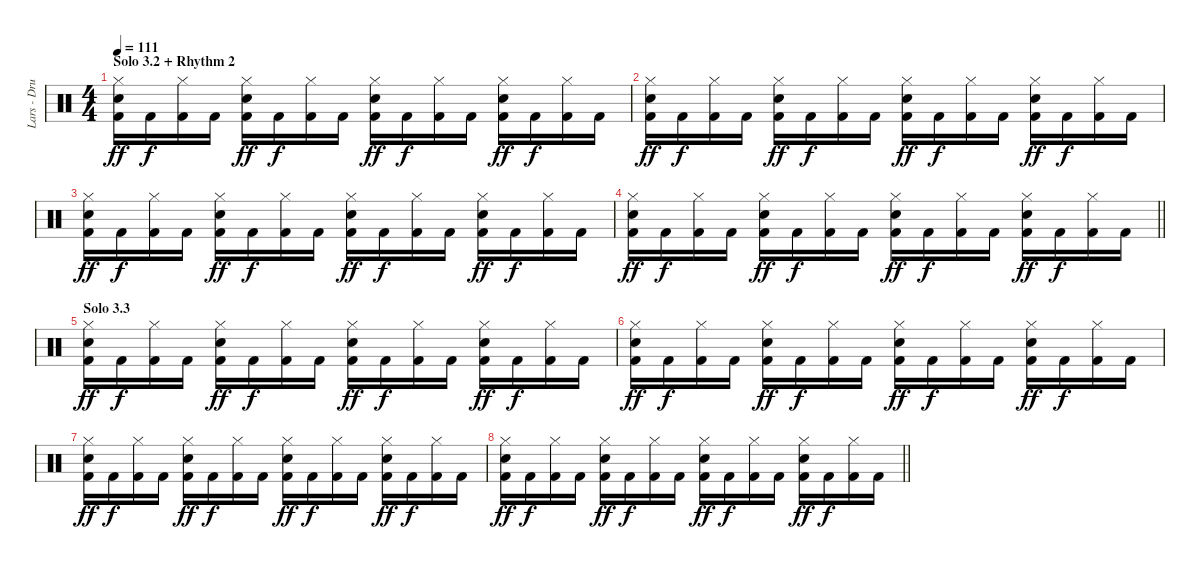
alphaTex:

\track ("Lars - Drums + tempi marker" "Lars - Dru") {instrument percussion}
\staff {score}
\articulation defaults
\ts (4 4)
\section ("" "Solo 3.2 + Rhythm 2")
\tempo 111
\clef neutral
\ks c
("Electric Snare (hit)" "Hi-Hat (closed)" "Kick (hit) 2").16{dy ff} "Kick (hit) 2".16{dy f} ("Hi-Hat (closed)" "Kick (hit) 2").16 "Kick (hit) 2".16 ("Electric Snare (hit)" "Hi-Hat (closed)" "Kick (hit) 2").16{dy ff} "Kick (hit) 2".16{dy f} ("Hi-Hat (closed)" "Kick (hit) 2").16 "Kick (hit) 2".16 ("Electric Snare (hit)" "Hi-Hat (closed)" "Kick (hit) 2").16{dy ff} "Kick (hit) 2".16{dy f} ("Hi-Hat (closed)" "Kick (hit) 2").16 "Kick (hit) 2".16 ("Electric Snare (hit)" "Hi-Hat (closed)" "Kick (hit) 2").16{dy ff} "Kick (hit) 2".16{dy f} ("Hi-Hat (closed)" "Kick (hit) 2").16 "Kick (hit) 2".16 |
("Electric Snare (hit)" "Hi-Hat (closed)" "Kick (hit) 2").16{dy ff} "Kick (hit) 2".16{dy f} ("Hi-Hat (closed)" "Kick (hit) 2").16 "Kick (hit) 2".16 ("Electric Snare (hit)" "Hi-Hat (closed)" "Kick (hit) 2").16{dy ff} "Kick (hit) 2".16{dy f} ("Hi-Hat (closed)" "Kick (hit) 2").16 "Kick (hit) 2".16 ("Electric Snare (hit)" "Hi-Hat (closed)" "Kick (hit) 2").16{dy ff} "Kick (hit) 2".16{dy f} ("Hi-Hat (closed)" "Kick (hit) 2").16 "Kick (hit) 2".16 ("Electric Snare (hit)" "Hi-Hat (closed)" "Kick (hit) 2").16{dy ff} "Kick (hit) 2".16{dy f} ("Hi-Hat (closed)" "Kick (hit) 2").16 "Kick (hit) 2".16 |
("Electric Snare (hit)" "Hi-Hat (closed)" "Kick (hit) 2").16{dy ff} "Kick (hit) 2".16{dy f} ("Hi-Hat (closed)" "Kick (hit) 2").16 "Kick (hit) 2".16 ("Electric Snare (hit)" "Hi-Hat (closed)" "Kick (hit) 2").16{dy ff} "Kick (hit) 2".16{dy f} ("Hi-Hat (closed)" "Kick (hit) 2").16 "Kick (hit) 2".16 ("Electric Snare (hit)" "Hi-Hat (closed)" "Kick (hit) 2").16{dy ff} "Kick (hit) 2".16{dy f} ("Hi-Hat (closed)" "Kick (hit) 2").16 "Kick (hit) 2".16 ("Electric Snare (hit)" "Hi-Hat (closed)" "Kick (hit) 2").16{dy ff} "Kick (hit) 2".16{dy f} ("Hi-Hat (closed)" "Kick (hit) 2").16 "Kick (hit) 2".16 |
\barLineRight lightlight
("Electric Snare (hit)" "Hi-Hat (closed)" "Kick (hit) 2").16{dy ff} "Kick (hit) 2".16{dy f} ("Hi-Hat (closed)" "Kick (hit) 2").16 "Kick (hit) 2".16 ("Electric Snare (hit)" "Hi-Hat (closed)" "Kick (hit) 2").16{dy ff} "Kick (hit) 2".16{dy f} ("Hi-Hat (closed)" "Kick (hit) 2").16 "Kick (hit) 2".16 ("Electric Snare (hit)" "Hi-Hat (closed)" "Kick (hit) 2").16{dy ff} "Kick (hit) 2".16{dy f} ("Hi-Hat (closed)" "Kick (hit) 2").16 "Kick (hit) 2".16 ("Electric Snare (hit)" "Hi-Hat (closed)" "Kick (hit) 2").16{dy ff} "Kick (hit) 2".16{dy f} ("Hi-Hat (closed)" "Kick (hit) 2").16 "Kick (hit) 2".16 |
\section ("" "Solo 3.3")
("Electric Snare (hit)" "Hi-Hat (closed)" "Kick (hit) 2").16{dy ff} "Kick (hit) 2".16{dy f} ("Hi-Hat (closed)" "Kick (hit) 2").16 "Kick (hit) 2".16 ("Electric Snare (hit)" "Hi-Hat (closed)" "Kick (hit) 2").16{dy ff} "Kick (hit) 2".16{dy f} ("Hi-Hat (closed)" "Kick (hit) 2").16 "Kick (hit) 2".16 ("Electric Snare (hit)" "Hi-Hat (closed)" "Kick (hit) 2").16{dy ff} "Kick (hit) 2".16{dy f} ("Hi-Hat (closed)" "Kick (hit) 2").16 "Kick (hit) 2".16 ("Electric Snare (hit)" "Hi-Hat (closed)" "Kick (hit) 2").16{dy ff} "Kick (hit) 2".16{dy f} ("Hi-Hat (closed)" "Kick (hit) 2").16 "Kick (hit) 2".16 |
("Electric Snare (hit)" "Hi-Hat (closed)" "Kick (hit) 2").16{dy ff} "Kick (hit) 2".16{dy f} ("Hi-Hat (closed)" "Kick (hit) 2").16 "Kick (hit) 2".16 ("Electric Snare (hit)" "Hi-Hat (closed)" "Kick (hit) 2").16{dy ff} "Kick (hit) 2".16{dy f} ("Hi-Hat (closed)" "Kick (hit) 2").16 "Kick (hit) 2".16 ("Electric Snare (hit)" "Hi-Hat (closed)" "Kick (hit) 2").16{dy ff} "Kick (hit) 2".16{dy f} ("Hi-Hat (closed)" "Kick (hit) 2").16 "Kick (hit) 2".16 ("Electric Snare (hit)" "Hi-Hat (closed)" "Kick (hit) 2").16{dy ff} "Kick (hit) 2".16{dy f} ("Hi-Hat (closed)" "Kick (hit) 2").16 "Kick (hit) 2".16 |
("Electric Snare (hit)" "Hi-Hat (closed)" "Kick (hit) 2").16{dy ff} "Kick (hit) 2".16{dy f} ("Hi-Hat (closed)" "Kick (hit) 2").16 "Kick (hit) 2".16 ("Electric Snare (hit)" "Hi-Hat (closed)" "Kick (hit) 2").16{dy ff} "Kick (hit) 2".16{dy f} ("Hi-Hat (closed)" "Kick (hit) 2").16 "Kick (hit) 2".16 ("Electric Snare (hit)" "Hi-Hat (closed)" "Kick (hit) 2").16{dy ff} "Kick (hit) 2".16{dy f} ("Hi-Hat (closed)" "Kick (hit) 2").16 "Kick (hit) 2".16 ("Electric Snare (hit)" "Hi-Hat (closed)" "Kick (hit) 2").16{dy ff} "Kick (hit) 2".16{dy f} ("Hi-Hat (closed)" "Kick (hit) 2").16 "Kick (hit) 2".16 |
\barLineRight lightlight
("Electric Snare (hit)" "Hi-Hat (closed)" "Kick (hit) 2").16{dy ff} "Kick (hit) 2".16{dy f} ("Hi-Hat (closed)" "Kick (hit) 2").16 "Kick (hit) 2".16 ("Electric Snare (hit)" "Hi-Hat (closed)" "Kick (hit) 2").16{dy ff} "Kick (hit) 2".16{dy f} ("Hi-Hat (closed)" "Kick (hit) 2").16 "Kick (hit) 2".16 ("Electric Snare (hit)" "Hi-Hat (closed)" "Kick (hit) 2").16{dy ff} "Kick (hit) 2".16{dy f} ("Hi-Hat (closed)" "Kick (hit) 2").16 "Kick (hit) 2".16 ("Electric Snare (hit)" "Hi-Hat (closed)" "Kick (hit) 2").16{dy ff} "Kick (hit) 2".16{dy f} ("Hi-Hat (closed)" "Kick (hit) 2").16 "Kick (hit) 2".16
